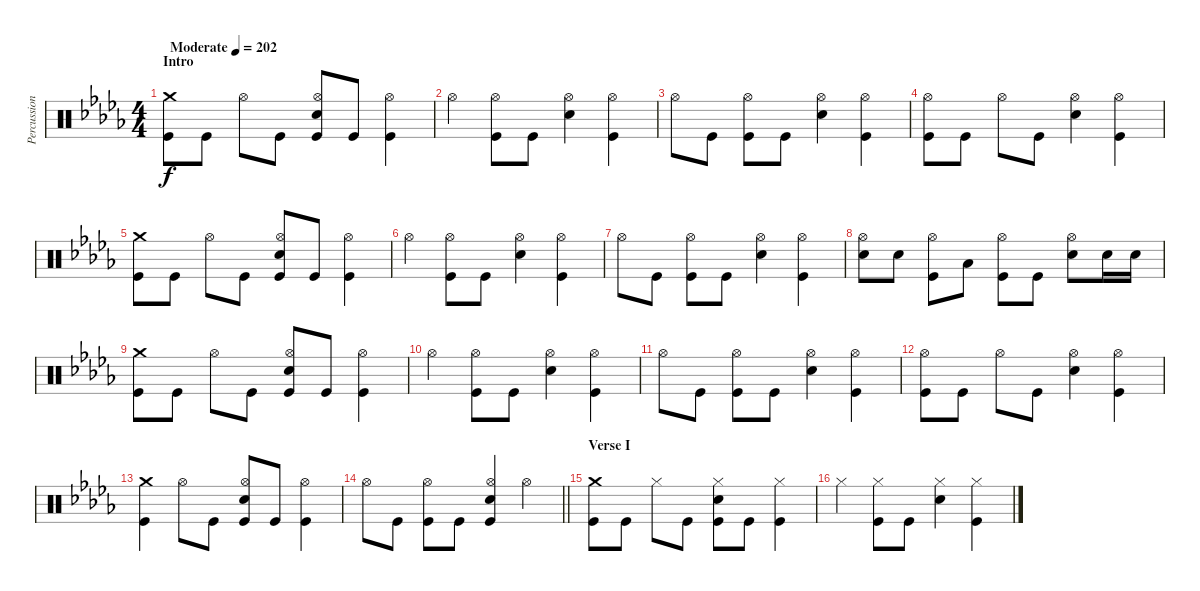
\track ("Percussion" "Percussion") {instrument percussion}
\staff {score}
\articulation defaults
\ts (4 4)
\section ("" "Intro")
\tempo (202 "Moderate")
\clef neutral
\ks db
("Crash medium (hit)" "Kick (hit)").8{dy f} "Kick (hit)".8 "Hi-Hat (open)".8 "Kick (hit)".8 ("Hi-Hat (open)" "Electric Snare (hit)" "Kick (hit)").8 "Kick (hit)".8 ("Hi-Hat (open)" "Kick (hit)").4 |
"Hi-Hat (open)".4 ("Hi-Hat (open)" "Kick (hit)").8 "Kick (hit)".8 ("Hi-Hat (open)" "Electric Snare (hit)").4 ("Hi-Hat (open)" "Kick (hit)").4 |
"Hi-Hat (open)".8 "Kick (hit)".8 ("Hi-Hat (open)" "Kick (hit)").8 "Kick (hit)".8 ("Hi-Hat (open)" "Electric Snare (hit)").4 ("Hi-Hat (open)" "Kick (hit)").4 |
("Hi-Hat (open)" "Kick (hit)").8 "Kick (hit)".8 "Hi-Hat (open)".8 "Kick (hit)".8 ("Hi-Hat (open)" "Electric Snare (hit)").4 ("Hi-Hat (open)" "Kick (hit)").4 |
("Crash medium (hit)" "Kick (hit)").8 "Kick (hit)".8 "Hi-Hat (open)".8 "Kick (hit)".8 ("Hi-Hat (open)" "Electric Snare (hit)" "Kick (hit)").8 "Kick (hit)".8 ("Hi-Hat (open)" "Kick (hit)").4 |
"Hi-Hat (open)".4 ("Hi-Hat (open)" "Kick (hit)").8 "Kick (hit)".8 ("Hi-Hat (open)" "Electric Snare (hit)").4 ("Hi-Hat (open)" "Kick (hit)").4 |
"Hi-Hat (open)".8 "Kick (hit)".8 ("Hi-Hat (open)" "Kick (hit)").8 "Kick (hit)".8 ("Hi-Hat (open)" "Electric Snare (hit)").4 ("Hi-Hat (open)" "Kick (hit)").4 |
("Hi-Hat (open)" "Electric Snare (hit)").8 "Electric Snare (hit)".8 ("Hi-Hat (open)" "Kick (hit)").8 "Low Floor Tom (hit)".8 ("Hi-Hat (open)" "Kick (hit)").8 "Kick (hit)".8 ("Hi-Hat (open)" "Electric Snare (hit)").8 "Electric Snare (hit)".16 "Electric Snare (hit)".16 |
("Crash medium (hit)" "Kick (hit)").8 "Kick (hit)".8 "Hi-Hat (open)".8 "Kick (hit)".8 ("Hi-Hat (open)" "Electric Snare (hit)" "Kick (hit)").8 "Kick (hit)".8 ("Hi-Hat (open)" "Kick (hit)").4 |
"Hi-Hat (open)".4 ("Hi-Hat (open)" "Kick (hit)").8 "Kick (hit)".8 ("Hi-Hat (open)" "Electric Snare (hit)").4 ("Hi-Hat (open)" "Kick (hit)").4 |
"Hi-Hat (open)".8 "Kick (hit)".8 ("Hi-Hat (open)" "Kick (hit)").8 "Kick (hit)".8 ("Hi-Hat (open)" "Electric Snare (hit)").4 ("Hi-Hat (open)" "Kick (hit)").4 |
("Hi-Hat (open)" "Kick (hit)").8 "Kick (hit)".8 "Hi-Hat (open)".8 "Kick (hit)".8 ("Hi-Hat (open)" "Electric Snare (hit)").4 ("Hi-Hat (open)" "Kick (hit)").4 |
("Crash medium (hit)" "Kick (hit)").4 "Hi-Hat (open)".8 "Kick (hit)".8 ("Hi-Hat (open)" "Electric Snare (hit)" "Kick (hit)").8 "Kick (hit)".8 ("Hi-Hat (open)" "Kick (hit)").4 |
\barLineRight lightlight "Hi-Hat (open)".8 "Kick (hit)".8
("Hi-Hat (open)" "Kick (hit)").8 "Kick (hit)".8 ("Hi-Hat (open)" "Electric Snare (hit)" "Kick (hit)").4 "Hi-Hat (open)".4 |
\section ("" "Verse I")
("Crash medium (hit)" "Kick (hit)").8 "Kick (hit)".8 "Hi-Hat (closed)".8 "Kick (hit)".8 ("Hi-Hat (closed)" "Electric Snare (hit)" "Kick (hit)").8 "Kick (hit)".8 ("Hi-Hat (closed)" "Kick (hit)").4 |
"Hi-Hat (closed)".4 ("Hi-Hat (closed)" "Kick (hit)").8 "Kick (hit)".8 ("Hi-Hat (closed)" "Electric Snare (hit)").4 ("Hi-Hat (closed)" "Kick (hit)").4
